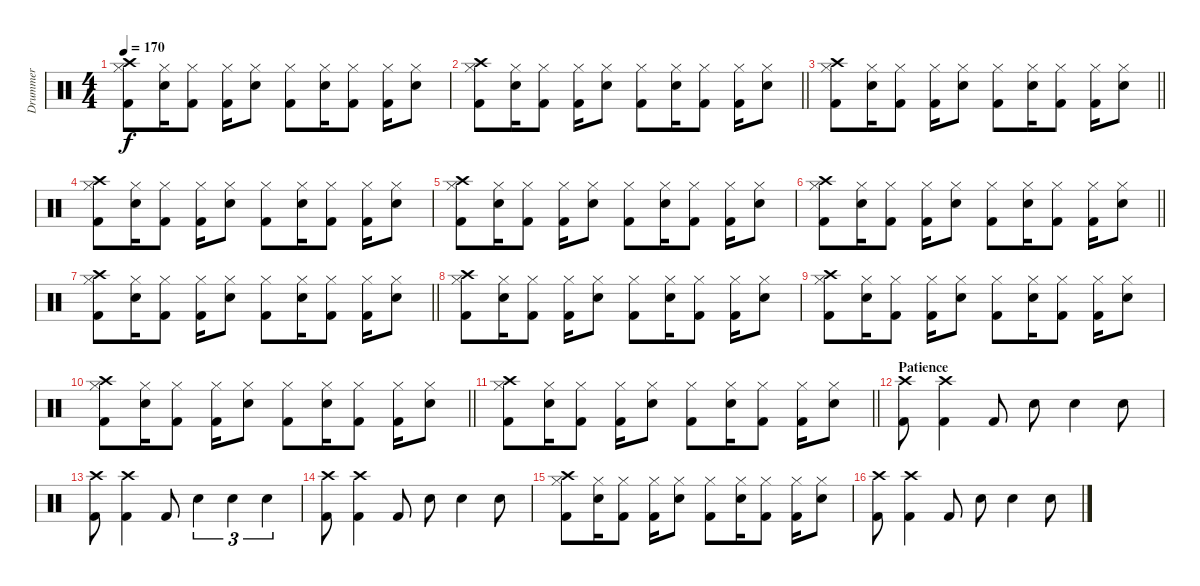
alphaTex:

\track ("Drummer" "Drummer") {instrument percussion}
\staff {score}
\articulation defaults
\ts (4 4)
\tempo 170
\clef neutral
\ks c
("Kick (hit) 2" "Hi-Hat (closed)" "Crash high (hit)").8{dy f} ("Electric Snare (hit)" "Hi-Hat (closed)").16 ("Kick (hit) 2" "Hi-Hat (closed)").8 ("Kick (hit) 2" "Hi-Hat (closed)").16 ("Electric Snare (hit)" "Hi-Hat (closed)").8 ("Kick (hit) 2" "Hi-Hat (closed)").8 ("Electric Snare (hit)" "Hi-Hat (closed)").16 ("Kick (hit) 2" "Hi-Hat (closed)").8 ("Kick (hit) 2" "Hi-Hat (closed)").16 ("Electric Snare (hit)" "Hi-Hat (closed)").8 |
\barLineRight lightlight
("Kick (hit) 2" "Hi-Hat (closed)" "Crash high (hit)").8 ("Electric Snare (hit)" "Hi-Hat (closed)").16 ("Kick (hit) 2" "Hi-Hat (closed)").8 ("Kick (hit) 2" "Hi-Hat (closed)").16 ("Electric Snare (hit)" "Hi-Hat (closed)").8 ("Kick (hit) 2" "Hi-Hat (closed)").8 ("Electric Snare (hit)" "Hi-Hat (closed)").16 ("Kick (hit) 2" "Hi-Hat (closed)").8 ("Kick (hit) 2" "Hi-Hat (closed)").16 ("Electric Snare (hit)" "Hi-Hat (closed)").8 |
\barLineRight lightlight
("Kick (hit) 2" "Hi-Hat (closed)" "Crash high (hit)").8 ("Electric Snare (hit)" "Hi-Hat (closed)").16 ("Kick (hit) 2" "Hi-Hat (closed)").8 ("Kick (hit) 2" "Hi-Hat (closed)").16 ("Electric Snare (hit)" "Hi-Hat (closed)").8 ("Kick (hit) 2" "Hi-Hat (closed)").8 ("Electric Snare (hit)" "Hi-Hat (closed)").16 ("Kick (hit) 2" "Hi-Hat (closed)").8 ("Kick (hit) 2" "Hi-Hat (closed)").16 ("Electric Snare (hit)" "Hi-Hat (closed)").8 |
("Kick (hit) 2" "Hi-Hat (closed)" "Crash high (hit)").8 ("Electric Snare (hit)" "Hi-Hat (closed)").16 ("Kick (hit) 2" "Hi-Hat (closed)").8 ("Kick (hit) 2" "Hi-Hat (closed)").16 ("Electric Snare (hit)" "Hi-Hat (closed)").8 ("Kick (hit) 2" "Hi-Hat (closed)").8 ("Electric Snare (hit)" "Hi-Hat (closed)").16 ("Kick (hit) 2" "Hi-Hat (closed)").8 ("Kick (hit) 2" "Hi-Hat (closed)").16 ("Electric Snare (hit)" "Hi-Hat (closed)").8 |
("Kick (hit) 2" "Hi-Hat (closed)" "Crash high (hit)").8 ("Electric Snare (hit)" "Hi-Hat (closed)").16 ("Kick (hit) 2" "Hi-Hat (closed)").8 ("Kick (hit) 2" "Hi-Hat (closed)").16 ("Electric Snare (hit)" "Hi-Hat (closed)").8 ("Kick (hit) 2" "Hi-Hat (closed)").8 ("Electric Snare (hit)" "Hi-Hat (closed)").16 ("Kick (hit) 2" "Hi-Hat (closed)").8 ("Kick (hit) 2" "Hi-Hat (closed)").16 ("Electric Snare (hit)" "Hi-Hat (closed)").8 |
\barLineRight lightlight
("Kick (hit) 2" "Hi-Hat (closed)" "Crash high (hit)").8 ("Electric Snare (hit)" "Hi-Hat (closed)").16 ("Kick (hit) 2" "Hi-Hat (closed)").8 ("Kick (hit) 2" "Hi-Hat (closed)").16 ("Electric Snare (hit)" "Hi-Hat (closed)").8 ("Kick (hit) 2" "Hi-Hat (closed)").8 ("Electric Snare (hit)" "Hi-Hat (closed)").16 ("Kick (hit) 2" "Hi-Hat (closed)").8 ("Kick (hit) 2" "Hi-Hat (closed)").16 ("Electric Snare (hit)" "Hi-Hat (closed)").8 |
\barLineRight lightlight
("Kick (hit) 2" "Hi-Hat (closed)" "Crash high (hit)").8 ("Electric Snare (hit)" "Hi-Hat (closed)").16 ("Kick (hit) 2" "Hi-Hat (closed)").8 ("Kick (hit) 2" "Hi-Hat (closed)").16 ("Electric Snare (hit)" "Hi-Hat (closed)").8 ("Kick (hit) 2" "Hi-Hat (closed)").8 ("Electric Snare (hit)" "Hi-Hat (closed)").16 ("Kick (hit) 2" "Hi-Hat (closed)").8 ("Kick (hit) 2" "Hi-Hat (closed)").16 ("Electric Snare (hit)" "Hi-Hat (closed)").8 |
("Kick (hit) 2" "Hi-Hat (closed)" "Crash high (hit)").8 ("Electric Snare (hit)" "Hi-Hat (closed)").16 ("Kick (hit) 2" "Hi-Hat (closed)").8 ("Kick (hit) 2" "Hi-Hat (closed)").16 ("Electric Snare (hit)" "Hi-Hat (closed)").8 ("Kick (hit) 2" "Hi-Hat (closed)").8 ("Electric Snare (hit)" "Hi-Hat (closed)").16 ("Kick (hit) 2" "Hi-Hat (closed)").8 ("Kick (hit) 2" "Hi-Hat (closed)").16 ("Electric Snare (hit)" "Hi-Hat (closed)").8 |
("Kick (hit) 2" "Hi-Hat (closed)" "Crash high (hit)").8 ("Electric Snare (hit)" "Hi-Hat (closed)").16 ("Kick (hit) 2" "Hi-Hat (closed)").8 ("Kick (hit) 2" "Hi-Hat (closed)").16 ("Electric Snare (hit)" "Hi-Hat (closed)").8 ("Kick (hit) 2" "Hi-Hat (closed)").8 ("Electric Snare (hit)" "Hi-Hat (closed)").16 ("Kick (hit) 2" "Hi-Hat (closed)").8 ("Kick (hit) 2" "Hi-Hat (closed)").16 ("Electric Snare (hit)" "Hi-Hat (closed)").8 |
\barLineRight lightlight
("Kick (hit) 2" "Hi-Hat (closed)" "Crash high (hit)").8 ("Electric Snare (hit)" "Hi-Hat (closed)").16 ("Kick (hit) 2" "Hi-Hat (closed)").8 ("Kick (hit) 2" "Hi-Hat (closed)").16 ("Electric Snare (hit)" "Hi-Hat (closed)").8 ("Kick (hit) 2" "Hi-Hat (closed)").8 ("Electric Snare (hit)" "Hi-Hat (closed)").16 ("Kick (hit) 2" "Hi-Hat (closed)").8 ("Kick (hit) 2" "Hi-Hat (closed)").16 ("Electric Snare (hit)" "Hi-Hat (closed)").8 |
\barLineRight lightlight
("Kick (hit) 2" "Hi-Hat (closed)" "Crash high (hit)").8 ("Electric Snare (hit)" "Hi-Hat (closed)").16 ("Kick (hit) 2" "Hi-Hat (closed)").8 ("Kick (hit) 2" "Hi-Hat (closed)").16 ("Electric Snare (hit)" "Hi-Hat (closed)").8 ("Kick (hit) 2" "Hi-Hat (closed)").8 ("Electric Snare (hit)" "Hi-Hat (closed)").16 ("Kick (hit) 2" "Hi-Hat (closed)").8 ("Kick (hit) 2" "Hi-Hat (closed)").16 ("Electric Snare (hit)" "Hi-Hat (closed)").8 |
\section ("" "Patience")
("Kick (hit) 2" "Crash high (hit)").8 ("Kick (hit) 2" "Crash high (hit)").4 "Kick (hit) 2".8 "Electric Snare (hit)".8 "Electric Snare (hit)".4 "Electric Snare (hit)".8 |
("Kick (hit) 2" "Crash high (hit)").8 ("Kick (hit) 2" "Crash high (hit)").4 "Kick (hit) 2".8 "Electric Snare (hit)".4{tu (3 2)} "Electric Snare (hit)".4{tu (3 2)} "Electric Snare (hit)".4{tu (3 2)} |
("Kick (hit) 2" "Crash high (hit)").8 ("Kick (hit) 2" "Crash high (hit)").4 "Kick (hit) 2".8 "Electric Snare (hit)".8 "Electric Snare (hit)".4 "Electric Snare (hit)".8 |
("Kick (hit) 2" "Hi-Hat (closed)" "Crash high (hit)").8 ("Electric Snare (hit)" "Hi-Hat (closed)").16 ("Kick (hit) 2" "Hi-Hat (closed)").8 ("Kick (hit) 2" "Hi-Hat (closed)").16 ("Electric Snare (hit)" "Hi-Hat (closed)").8 ("Kick (hit) 2" "Hi-Hat (closed)").8 ("Electric Snare (hit)" "Hi-Hat (closed)").16 ("Kick (hit) 2" "Hi-Hat (closed)").8 ("Kick (hit) 2" "Hi-Hat (closed)").16 ("Electric Snare (hit)" "Hi-Hat (closed)").8 |
("Kick (hit) 2" "Crash high (hit)").8 ("Kick (hit) 2" "Crash high (hit)").4 "Kick (hit) 2".8 "Electric Snare (hit)".8 "Electric Snare (hit)".4 "Electric Snare (hit)".8
